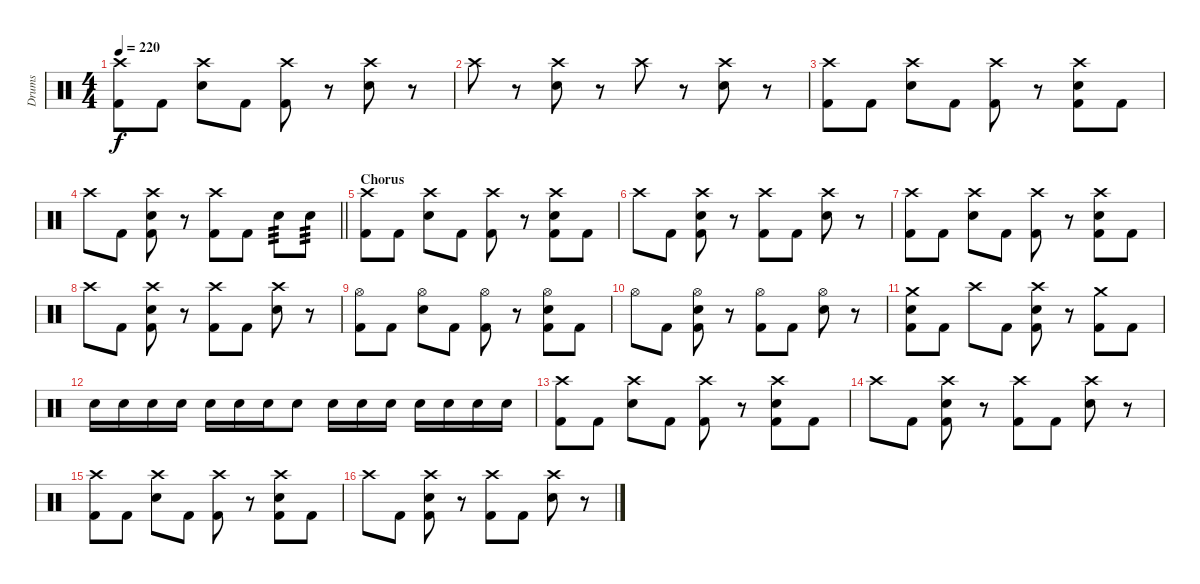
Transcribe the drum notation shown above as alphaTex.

\track ("Drums" "Drums") {instrument percussion}
\staff {score}
\articulation defaults
\ts (4 4)
\tempo 220
\clef neutral
\ks c
("Crash high (hit)" "Kick (hit) 2").8{dy f} "Kick (hit) 2".8 ("Crash high (hit)" "Electric Snare (hit)").8 "Kick (hit) 2".8 ("Crash high (hit)" "Kick (hit) 2").8 r.8 ("Crash high (hit)" "Electric Snare (hit)").8 r.8 |
"Crash high (hit)".8 r.8 ("Crash high (hit)" "Electric Snare (hit)").8 r.8 "Crash high (hit)".8 r.8 ("Crash high (hit)" "Electric Snare (hit)").8 r.8 |
("Crash high (hit)" "Kick (hit) 2").8 "Kick (hit) 2".8 ("Crash high (hit)" "Electric Snare (hit)").8 "Kick (hit) 2".8 ("Crash high (hit)" "Kick (hit) 2").8 r.8 ("Crash high (hit)" "Electric Snare (hit)" "Kick (hit) 2").8 "Kick (hit) 2".8 |
\barLineRight lightlight "Crash high (hit)".8 "Kick (hit) 2".8
("Crash high (hit)" "Electric Snare (hit)" "Kick (hit) 2").8 r.8 ("Crash high (hit)" "Kick (hit) 2").8 "Kick (hit) 2".8 "Electric Snare (hit)".8{tp 3} "Electric Snare (hit)".8{tp 3} |
\section ("" "Chorus")
("Crash high (hit)" "Kick (hit) 2").8 "Kick (hit) 2".8 ("Crash high (hit)" "Electric Snare (hit)").8 "Kick (hit) 2".8 ("Crash high (hit)" "Kick (hit) 2").8 r.8 ("Crash high (hit)" "Electric Snare (hit)" "Kick (hit) 2").8 "Kick (hit) 2".8 |
"Crash high (hit)".8 "Kick (hit) 2".8 ("Crash high (hit)" "Electric Snare (hit)" "Kick (hit) 2").8 r.8 ("Crash high (hit)" "Kick (hit) 2").8 "Kick (hit) 2".8 ("Crash high (hit)" "Electric Snare (hit)").8 r.8 |
("Crash high (hit)" "Kick (hit) 2").8 "Kick (hit) 2".8 ("Crash high (hit)" "Electric Snare (hit)").8 "Kick (hit) 2".8 ("Crash high (hit)" "Kick (hit) 2").8 r.8 ("Crash high (hit)" "Electric Snare (hit)" "Kick (hit) 2").8 "Kick (hit) 2".8 |
"Crash high (hit)".8 "Kick (hit) 2".8 ("Crash high (hit)" "Electric Snare (hit)" "Kick (hit) 2").8 r.8 ("Crash high (hit)" "Kick (hit) 2").8 "Kick (hit) 2".8 ("Crash high (hit)" "Electric Snare (hit)").8 r.8 |
("Hi-Hat (open)" "Kick (hit) 2").8 "Kick (hit) 2".8 ("Hi-Hat (open)" "Electric Snare (hit)").8 "Kick (hit) 2".8 ("Hi-Hat (open)" "Kick (hit) 2").8 r.8 ("Hi-Hat (open)" "Electric Snare (hit)" "Kick (hit) 2").8 "Kick (hit) 2".8 |
"Hi-Hat (open)".8 "Kick (hit) 2".8 ("Hi-Hat (open)" "Electric Snare (hit)" "Kick (hit) 2").8 r.8 ("Hi-Hat (open)" "Kick (hit) 2").8 "Kick (hit) 2".8 ("Hi-Hat (open)" "Electric Snare (hit)").8 r.8 |
("Crash medium (hit)" "Electric Snare (hit)" "Kick (hit) 2").8 "Kick (hit) 2".8 "Crash high (hit)".8 "Kick (hit) 2".8 ("Crash high (hit)" "Electric Snare (hit)" "Kick (hit) 2").8 r.8 ("Crash medium (hit)" "Kick (hit) 2").8 "Kick (hit) 2".8 |
"Electric Snare (hit)".16 "Electric Snare (hit)".16 "Electric Snare (hit)".16 "Electric Snare (hit)".16 "Electric Snare (hit)".16 "Electric Snare (hit)".16 "Electric Snare (hit)".16 "Electric Snare (hit)".8 "Electric Snare (hit)".16 "Electric Snare (hit)".16 "Electric Snare (hit)".16 "Electric Snare (hit)".16 "Electric Snare (hit)".16 "Electric Snare (hit)".16 "Electric Snare (hit)".16 |
("Crash high (hit)" "Kick (hit) 2").8 "Kick (hit) 2".8 ("Crash high (hit)" "Electric Snare (hit)").8 "Kick (hit) 2".8 ("Crash high (hit)" "Kick (hit) 2").8 r.8 ("Crash high (hit)" "Electric Snare (hit)" "Kick (hit) 2").8 "Kick (hit) 2".8 |
"Crash high (hit)".8 "Kick (hit) 2".8 ("Crash high (hit)" "Electric Snare (hit)" "Kick (hit) 2").8 r.8 ("Crash high (hit)" "Kick (hit) 2").8 "Kick (hit) 2".8 ("Crash high (hit)" "Electric Snare (hit)").8 r.8 |
("Crash high (hit)" "Kick (hit) 2").8 "Kick (hit) 2".8 ("Crash high (hit)" "Electric Snare (hit)").8 "Kick (hit) 2".8 ("Crash high (hit)" "Kick (hit) 2").8 r.8 ("Crash high (hit)" "Electric Snare (hit)" "Kick (hit) 2").8 "Kick (hit) 2".8 |
"Crash high (hit)".8 "Kick (hit) 2".8 ("Crash high (hit)" "Electric Snare (hit)" "Kick (hit) 2").8 r.8 ("Crash high (hit)" "Kick (hit) 2").8 "Kick (hit) 2".8 ("Crash high (hit)" "Electric Snare (hit)").8 r.8
